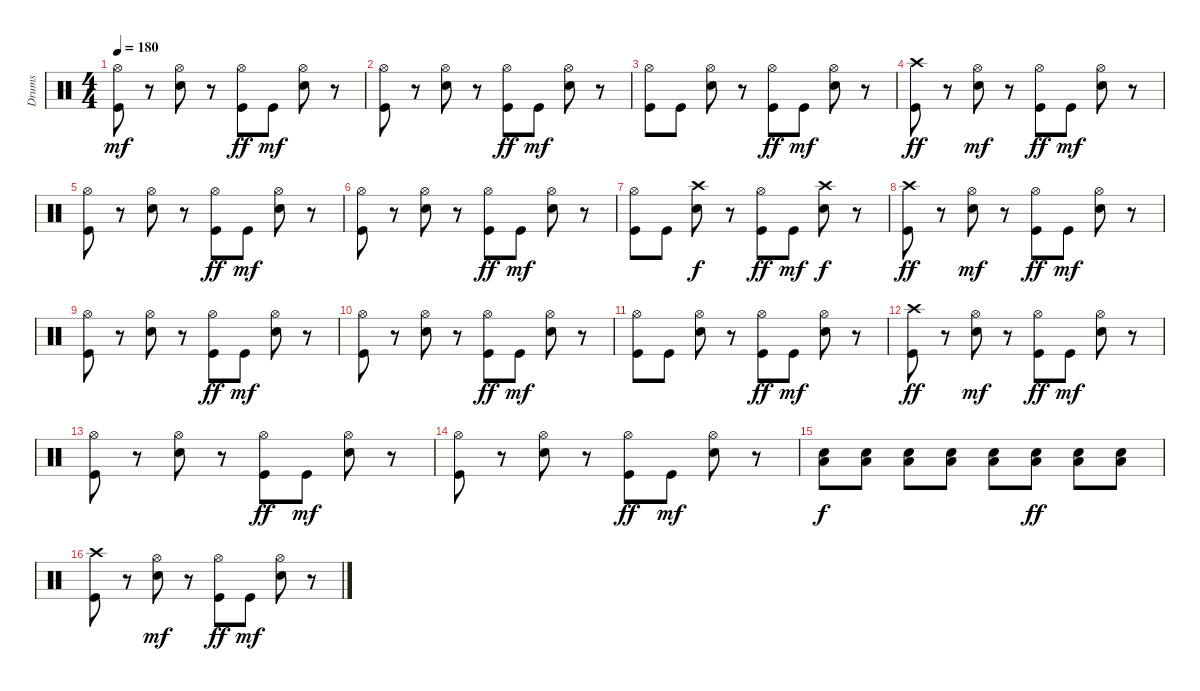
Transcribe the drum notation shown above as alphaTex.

\track ("Drums" "Drums") {instrument percussion}
\staff {score}
\articulation defaults
\ts (4 4)
\tempo 180
\clef neutral
\ks c
("Kick (hit)" "Hi-Hat (open)").8{dy mf} r.8 ("Hi-Hat (open)" "Snare (hit) 2").8 r.8 ("Hi-Hat (open)" "Kick (hit)").8{dy ff} "Kick (hit)".8{dy mf} ("Snare (hit) 2" "Hi-Hat (open)").8 r.8 |
("Kick (hit)" "Hi-Hat (open)").8 r.8 ("Hi-Hat (open)" "Snare (hit) 2").8 r.8 ("Hi-Hat (open)" "Kick (hit)").8{dy ff} "Kick (hit)".8{dy mf} ("Snare (hit) 2" "Hi-Hat (open)").8 r.8 |
("Kick (hit)" "Hi-Hat (open)").8 "Kick (hit)".8 ("Hi-Hat (open)" "Snare (hit) 2").8 r.8 ("Hi-Hat (open)" "Kick (hit)").8{dy ff} "Kick (hit)".8{dy mf} ("Hi-Hat (open)" "Snare (hit) 2").8 r.8 |
("Crash high (hit)" "Kick (hit)").8{dy ff} r.8 ("Hi-Hat (open)" "Snare (hit) 2").8{dy mf} r.8 ("Hi-Hat (open)" "Kick (hit)").8{dy ff} "Kick (hit)".8{dy mf} ("Hi-Hat (open)" "Snare (hit) 2").8 r.8 |
("Kick (hit)" "Hi-Hat (open)").8 r.8 ("Hi-Hat (open)" "Snare (hit) 2").8 r.8 ("Hi-Hat (open)" "Kick (hit)").8{dy ff} "Kick (hit)".8{dy mf} ("Snare (hit) 2" "Hi-Hat (open)").8 r.8 |
("Kick (hit)" "Hi-Hat (open)").8 r.8 ("Hi-Hat (open)" "Snare (hit) 2").8 r.8 ("Hi-Hat (open)" "Kick (hit)").8{dy ff} "Kick (hit)".8{dy mf} ("Snare (hit) 2" "Hi-Hat (open)").8 r.8 |
("Kick (hit)" "Hi-Hat (open)").8 "Kick (hit)".8 ("Crash high (hit)" "Snare (hit) 2").8{dy f} r.8 ("Hi-Hat (open)" "Kick (hit)").8{dy ff} "Kick (hit)".8{dy mf} ("Crash high (hit)" "Snare (hit) 2").8{dy f} r.8 |
("Crash high (hit)" "Kick (hit)").8{dy ff} r.8 ("Hi-Hat (open)" "Snare (hit) 2").8{dy mf} r.8 ("Hi-Hat (open)" "Kick (hit)").8{dy ff} "Kick (hit)".8{dy mf} ("Hi-Hat (open)" "Snare (hit) 2").8 r.8 |
("Kick (hit)" "Hi-Hat (open)").8 r.8 ("Hi-Hat (open)" "Snare (hit) 2").8 r.8 ("Hi-Hat (open)" "Kick (hit)").8{dy ff} "Kick (hit)".8{dy mf} ("Snare (hit) 2" "Hi-Hat (open)").8 r.8 |
("Kick (hit)" "Hi-Hat (open)").8 r.8 ("Hi-Hat (open)" "Snare (hit) 2").8 r.8 ("Hi-Hat (open)" "Kick (hit)").8{dy ff} "Kick (hit)".8{dy mf} ("Snare (hit) 2" "Hi-Hat (open)").8 r.8 |
("Kick (hit)" "Hi-Hat (open)").8 "Kick (hit)".8 ("Hi-Hat (open)" "Snare (hit) 2").8 r.8 ("Hi-Hat (open)" "Kick (hit)").8{dy ff} "Kick (hit)".8{dy mf} ("Hi-Hat (open)" "Snare (hit) 2").8 r.8 |
("Crash high (hit)" "Kick (hit)").8{dy ff} r.8 ("Hi-Hat (open)" "Snare (hit) 2").8{dy mf} r.8 ("Hi-Hat (open)" "Kick (hit)").8{dy ff} "Kick (hit)".8{dy mf} ("Hi-Hat (open)" "Snare (hit) 2").8 r.8 |
("Kick (hit)" "Hi-Hat (open)").8 r.8 ("Hi-Hat (open)" "Snare (hit) 2").8 r.8 ("Hi-Hat (open)" "Kick (hit)").8{dy ff} "Kick (hit)".8{dy mf} ("Snare (hit) 2" "Hi-Hat (open)").8 r.8 |
("Kick (hit)" "Hi-Hat (open)").8 r.8 ("Hi-Hat (open)" "Snare (hit) 2").8 r.8 ("Hi-Hat (open)" "Kick (hit)").8{dy ff} "Kick (hit)".8{dy mf} ("Snare (hit) 2" "Hi-Hat (open)").8 r.8 |
("Low Floor Tom (hit)" "Snare (hit) 2").8{dy f} ("Low Floor Tom (hit)" "Snare (hit) 2").8 ("Low Floor Tom (hit)" "Snare (hit) 2").8 ("Low Floor Tom (hit)" "Snare (hit) 2").8 ("Low Floor Tom (hit)" "Snare (hit) 2").8 ("Low Floor Tom (hit)" "Snare (hit) 2").8{dy ff} ("Low Floor Tom (hit)" "Snare (hit) 2").8 ("Low Floor Tom (hit)" "Snare (hit) 2").8 |
("Crash high (hit)" "Kick (hit)").8 r.8 ("Hi-Hat (open)" "Snare (hit) 2").8{dy mf} r.8 ("Hi-Hat (open)" "Kick (hit)").8{dy ff} "Kick (hit)".8{dy mf} ("Hi-Hat (open)" "Snare (hit) 2").8 r.8
